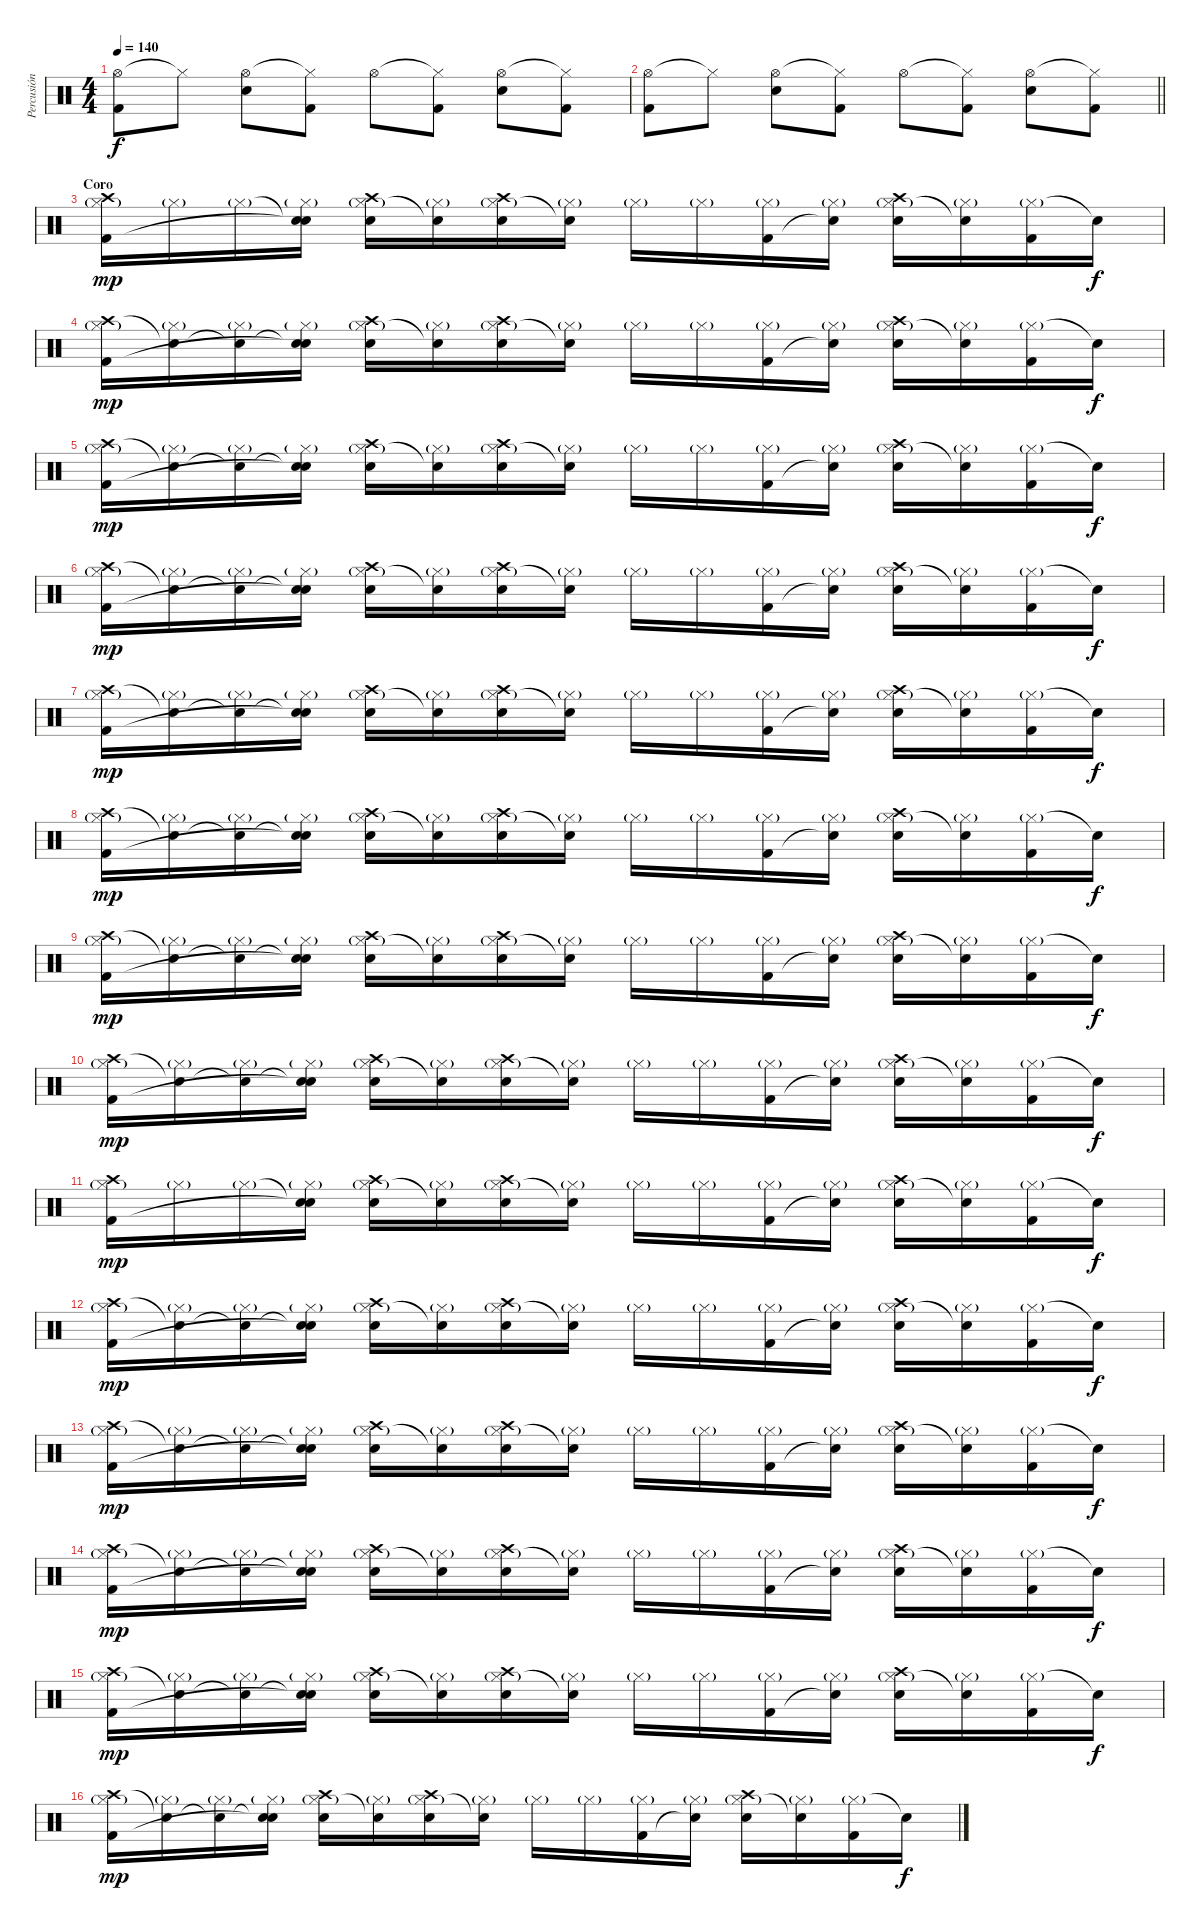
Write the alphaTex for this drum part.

\track ("Percusión" "Percusión") {instrument percussion}
\staff {score}
\articulation defaults
\ts (4 4)
\tempo 140
\clef neutral
\ks c
("Hi-Hat (open)" "Kick (hit) 2").8{dy f} "Hi-Hat (closed)"{t}.8 ("Hi-Hat (open)" "Electric Snare (hit)").8 ("Hi-Hat (closed)"{t} "Kick (hit) 2").8 "Hi-Hat (open)".8 ("Hi-Hat (closed)"{t} "Kick (hit) 2").8 ("Hi-Hat (open)" "Electric Snare (hit)").8 ("Hi-Hat (closed)"{t} "Kick (hit) 2").8 |
\barLineRight lightlight
("Hi-Hat (open)" "Kick (hit) 2").8 "Hi-Hat (closed)"{t}.8 ("Hi-Hat (open)" "Electric Snare (hit)").8 ("Hi-Hat (closed)"{t} "Kick (hit) 2").8 "Hi-Hat (open)".8 ("Hi-Hat (closed)"{t} "Kick (hit) 2").8 ("Hi-Hat (open)" "Electric Snare (hit)").8 ("Hi-Hat (closed)"{t} "Kick (hit) 2").8 |
\section ("" "Coro")
("Crash high (hit)" "Hi-Hat (closed)"{g} "Kick (hit) 2").16{dy mp} "Hi-Hat (closed)"{g}.16 "Hi-Hat (closed)"{g}.16 ("Snare (hit)"{t} "Hi-Hat (closed)"{g} "Snare (hit)"{t}).16 ("Crash high (hit)" "Hi-Hat (closed)"{g} "Electric Snare (hit)").16 ("Hi-Hat (closed)"{g} "Snare (hit)"{t}).16 ("Crash high (hit)" "Hi-Hat (closed)"{g} "Electric Snare (hit)").16 ("Hi-Hat (closed)"{g} "Snare (hit)"{t}).16 "Hi-Hat (closed)"{g}.16 "Hi-Hat (closed)"{g}.16 ("Hi-Hat (closed)"{g} "Kick (hit) 2").16 ("Hi-Hat (closed)"{g} "Snare (hit)"{t}).16 ("Crash high (hit)" "Hi-Hat (closed)"{g} "Electric Snare (hit)").16 ("Hi-Hat (closed)"{g} "Snare (hit)"{t}).16 ("Hi-Hat (closed)"{g} "Kick (hit) 2").16 "Snare (hit)"{t}.16{dy f} |
("Crash high (hit)" "Hi-Hat (closed)"{g} "Kick (hit) 2").16{dy mp} ("Snare (hit)"{t} "Hi-Hat (closed)"{g}).16 ("Snare (hit)"{t} "Hi-Hat (closed)"{g}).16 ("Snare (hit)"{t} "Hi-Hat (closed)"{g} "Snare (hit)"{t}).16 ("Crash high (hit)" "Hi-Hat (closed)"{g} "Electric Snare (hit)").16 ("Hi-Hat (closed)"{g} "Snare (hit)"{t}).16 ("Crash high (hit)" "Hi-Hat (closed)"{g} "Electric Snare (hit)").16 ("Hi-Hat (closed)"{g} "Snare (hit)"{t}).16 "Hi-Hat (closed)"{g}.16 "Hi-Hat (closed)"{g}.16 ("Hi-Hat (closed)"{g} "Kick (hit) 2").16 ("Hi-Hat (closed)"{g} "Snare (hit)"{t}).16 ("Crash high (hit)" "Hi-Hat (closed)"{g} "Electric Snare (hit)").16 ("Hi-Hat (closed)"{g} "Snare (hit)"{t}).16 ("Hi-Hat (closed)"{g} "Kick (hit) 2").16 "Snare (hit)"{t}.16{dy f} |
("Crash high (hit)" "Hi-Hat (closed)"{g} "Kick (hit) 2").16{dy mp} ("Snare (hit)"{t} "Hi-Hat (closed)"{g}).16 ("Snare (hit)"{t} "Hi-Hat (closed)"{g}).16 ("Snare (hit)"{t} "Hi-Hat (closed)"{g} "Snare (hit)"{t}).16 ("Crash high (hit)" "Hi-Hat (closed)"{g} "Electric Snare (hit)").16 ("Hi-Hat (closed)"{g} "Snare (hit)"{t}).16 ("Crash high (hit)" "Hi-Hat (closed)"{g} "Electric Snare (hit)").16 ("Hi-Hat (closed)"{g} "Snare (hit)"{t}).16 "Hi-Hat (closed)"{g}.16 "Hi-Hat (closed)"{g}.16 ("Hi-Hat (closed)"{g} "Kick (hit) 2").16 ("Hi-Hat (closed)"{g} "Snare (hit)"{t}).16 ("Crash high (hit)" "Hi-Hat (closed)"{g} "Electric Snare (hit)").16 ("Hi-Hat (closed)"{g} "Snare (hit)"{t}).16 ("Hi-Hat (closed)"{g} "Kick (hit) 2").16 "Snare (hit)"{t}.16{dy f} |
("Crash high (hit)" "Hi-Hat (closed)"{g} "Kick (hit) 2").16{dy mp} ("Snare (hit)"{t} "Hi-Hat (closed)"{g}).16 ("Snare (hit)"{t} "Hi-Hat (closed)"{g}).16 ("Snare (hit)"{t} "Hi-Hat (closed)"{g} "Snare (hit)"{t}).16 ("Crash high (hit)" "Hi-Hat (closed)"{g} "Electric Snare (hit)").16 ("Hi-Hat (closed)"{g} "Snare (hit)"{t}).16 ("Crash high (hit)" "Hi-Hat (closed)"{g} "Electric Snare (hit)").16 ("Hi-Hat (closed)"{g} "Snare (hit)"{t}).16 "Hi-Hat (closed)"{g}.16 "Hi-Hat (closed)"{g}.16 ("Hi-Hat (closed)"{g} "Kick (hit) 2").16 ("Hi-Hat (closed)"{g} "Snare (hit)"{t}).16 ("Crash high (hit)" "Hi-Hat (closed)"{g} "Electric Snare (hit)").16 ("Hi-Hat (closed)"{g} "Snare (hit)"{t}).16 ("Hi-Hat (closed)"{g} "Kick (hit) 2").16 "Snare (hit)"{t}.16{dy f} |
("Crash high (hit)" "Hi-Hat (closed)"{g} "Kick (hit) 2").16{dy mp} ("Snare (hit)"{t} "Hi-Hat (closed)"{g}).16 ("Snare (hit)"{t} "Hi-Hat (closed)"{g}).16 ("Snare (hit)"{t} "Hi-Hat (closed)"{g} "Snare (hit)"{t}).16 ("Crash high (hit)" "Hi-Hat (closed)"{g} "Electric Snare (hit)").16 ("Hi-Hat (closed)"{g} "Snare (hit)"{t}).16 ("Crash high (hit)" "Hi-Hat (closed)"{g} "Electric Snare (hit)").16 ("Hi-Hat (closed)"{g} "Snare (hit)"{t}).16 "Hi-Hat (closed)"{g}.16 "Hi-Hat (closed)"{g}.16 ("Hi-Hat (closed)"{g} "Kick (hit) 2").16 ("Hi-Hat (closed)"{g} "Snare (hit)"{t}).16 ("Crash high (hit)" "Hi-Hat (closed)"{g} "Electric Snare (hit)").16 ("Hi-Hat (closed)"{g} "Snare (hit)"{t}).16 ("Hi-Hat (closed)"{g} "Kick (hit) 2").16 "Snare (hit)"{t}.16{dy f} |
("Crash high (hit)" "Hi-Hat (closed)"{g} "Kick (hit) 2").16{dy mp} ("Snare (hit)"{t} "Hi-Hat (closed)"{g}).16 ("Snare (hit)"{t} "Hi-Hat (closed)"{g}).16 ("Snare (hit)"{t} "Hi-Hat (closed)"{g} "Snare (hit)"{t}).16 ("Crash high (hit)" "Hi-Hat (closed)"{g} "Electric Snare (hit)").16 ("Hi-Hat (closed)"{g} "Snare (hit)"{t}).16 ("Crash high (hit)" "Hi-Hat (closed)"{g} "Electric Snare (hit)").16 ("Hi-Hat (closed)"{g} "Snare (hit)"{t}).16 "Hi-Hat (closed)"{g}.16 "Hi-Hat (closed)"{g}.16 ("Hi-Hat (closed)"{g} "Kick (hit) 2").16 ("Hi-Hat (closed)"{g} "Snare (hit)"{t}).16 ("Crash high (hit)" "Hi-Hat (closed)"{g} "Electric Snare (hit)").16 ("Hi-Hat (closed)"{g} "Snare (hit)"{t}).16 ("Hi-Hat (closed)"{g} "Kick (hit) 2").16 "Snare (hit)"{t}.16{dy f} |
("Crash high (hit)" "Hi-Hat (closed)"{g} "Kick (hit) 2").16{dy mp} ("Snare (hit)"{t} "Hi-Hat (closed)"{g}).16 ("Snare (hit)"{t} "Hi-Hat (closed)"{g}).16 ("Snare (hit)"{t} "Hi-Hat (closed)"{g} "Snare (hit)"{t}).16 ("Crash high (hit)" "Hi-Hat (closed)"{g} "Electric Snare (hit)").16 ("Hi-Hat (closed)"{g} "Snare (hit)"{t}).16 ("Crash high (hit)" "Hi-Hat (closed)"{g} "Electric Snare (hit)").16 ("Hi-Hat (closed)"{g} "Snare (hit)"{t}).16 "Hi-Hat (closed)"{g}.16 "Hi-Hat (closed)"{g}.16 ("Hi-Hat (closed)"{g} "Kick (hit) 2").16 ("Hi-Hat (closed)"{g} "Snare (hit)"{t}).16 ("Crash high (hit)" "Hi-Hat (closed)"{g} "Electric Snare (hit)").16 ("Hi-Hat (closed)"{g} "Snare (hit)"{t}).16 ("Hi-Hat (closed)"{g} "Kick (hit) 2").16 "Snare (hit)"{t}.16{dy f} |
("Crash high (hit)" "Hi-Hat (closed)"{g} "Kick (hit) 2").16{dy mp} ("Snare (hit)"{t} "Hi-Hat (closed)"{g}).16 ("Snare (hit)"{t} "Hi-Hat (closed)"{g}).16 ("Snare (hit)"{t} "Hi-Hat (closed)"{g} "Snare (hit)"{t}).16 ("Crash high (hit)" "Hi-Hat (closed)"{g} "Electric Snare (hit)").16 ("Hi-Hat (closed)"{g} "Snare (hit)"{t}).16 ("Crash high (hit)" "Hi-Hat (closed)"{g} "Electric Snare (hit)").16 ("Hi-Hat (closed)"{g} "Snare (hit)"{t}).16 "Hi-Hat (closed)"{g}.16 "Hi-Hat (closed)"{g}.16 ("Hi-Hat (closed)"{g} "Kick (hit) 2").16 ("Hi-Hat (closed)"{g} "Snare (hit)"{t}).16 ("Crash high (hit)" "Hi-Hat (closed)"{g} "Electric Snare (hit)").16 ("Hi-Hat (closed)"{g} "Snare (hit)"{t}).16 ("Hi-Hat (closed)"{g} "Kick (hit) 2").16 "Snare (hit)"{t}.16{dy f} |
("Crash high (hit)" "Hi-Hat (closed)"{g} "Kick (hit) 2").16{dy mp} "Hi-Hat (closed)"{g}.16 "Hi-Hat (closed)"{g}.16 ("Snare (hit)"{t} "Hi-Hat (closed)"{g} "Snare (hit)"{t}).16 ("Crash high (hit)" "Hi-Hat (closed)"{g} "Electric Snare (hit)").16 ("Hi-Hat (closed)"{g} "Snare (hit)"{t}).16 ("Crash high (hit)" "Hi-Hat (closed)"{g} "Electric Snare (hit)").16 ("Hi-Hat (closed)"{g} "Snare (hit)"{t}).16 "Hi-Hat (closed)"{g}.16 "Hi-Hat (closed)"{g}.16 ("Hi-Hat (closed)"{g} "Kick (hit) 2").16 ("Hi-Hat (closed)"{g} "Snare (hit)"{t}).16 ("Crash high (hit)" "Hi-Hat (closed)"{g} "Electric Snare (hit)").16 ("Hi-Hat (closed)"{g} "Snare (hit)"{t}).16 ("Hi-Hat (closed)"{g} "Kick (hit) 2").16 "Snare (hit)"{t}.16{dy f} |
("Crash high (hit)" "Hi-Hat (closed)"{g} "Kick (hit) 2").16{dy mp} ("Snare (hit)"{t} "Hi-Hat (closed)"{g}).16 ("Snare (hit)"{t} "Hi-Hat (closed)"{g}).16 ("Snare (hit)"{t} "Hi-Hat (closed)"{g} "Snare (hit)"{t}).16 ("Crash high (hit)" "Hi-Hat (closed)"{g} "Electric Snare (hit)").16 ("Hi-Hat (closed)"{g} "Snare (hit)"{t}).16 ("Crash high (hit)" "Hi-Hat (closed)"{g} "Electric Snare (hit)").16 ("Hi-Hat (closed)"{g} "Snare (hit)"{t}).16 "Hi-Hat (closed)"{g}.16 "Hi-Hat (closed)"{g}.16 ("Hi-Hat (closed)"{g} "Kick (hit) 2").16 ("Hi-Hat (closed)"{g} "Snare (hit)"{t}).16 ("Crash high (hit)" "Hi-Hat (closed)"{g} "Electric Snare (hit)").16 ("Hi-Hat (closed)"{g} "Snare (hit)"{t}).16 ("Hi-Hat (closed)"{g} "Kick (hit) 2").16 "Snare (hit)"{t}.16{dy f} |
("Crash high (hit)" "Hi-Hat (closed)"{g} "Kick (hit) 2").16{dy mp} ("Snare (hit)"{t} "Hi-Hat (closed)"{g}).16 ("Snare (hit)"{t} "Hi-Hat (closed)"{g}).16 ("Snare (hit)"{t} "Hi-Hat (closed)"{g} "Snare (hit)"{t}).16 ("Crash high (hit)" "Hi-Hat (closed)"{g} "Electric Snare (hit)").16 ("Hi-Hat (closed)"{g} "Snare (hit)"{t}).16 ("Crash high (hit)" "Hi-Hat (closed)"{g} "Electric Snare (hit)").16 ("Hi-Hat (closed)"{g} "Snare (hit)"{t}).16 "Hi-Hat (closed)"{g}.16 "Hi-Hat (closed)"{g}.16 ("Hi-Hat (closed)"{g} "Kick (hit) 2").16 ("Hi-Hat (closed)"{g} "Snare (hit)"{t}).16 ("Crash high (hit)" "Hi-Hat (closed)"{g} "Electric Snare (hit)").16 ("Hi-Hat (closed)"{g} "Snare (hit)"{t}).16 ("Hi-Hat (closed)"{g} "Kick (hit) 2").16 "Snare (hit)"{t}.16{dy f} |
("Crash high (hit)" "Hi-Hat (closed)"{g} "Kick (hit) 2").16{dy mp} ("Snare (hit)"{t} "Hi-Hat (closed)"{g}).16 ("Snare (hit)"{t} "Hi-Hat (closed)"{g}).16 ("Snare (hit)"{t} "Hi-Hat (closed)"{g} "Snare (hit)"{t}).16 ("Crash high (hit)" "Hi-Hat (closed)"{g} "Electric Snare (hit)").16 ("Hi-Hat (closed)"{g} "Snare (hit)"{t}).16 ("Crash high (hit)" "Hi-Hat (closed)"{g} "Electric Snare (hit)").16 ("Hi-Hat (closed)"{g} "Snare (hit)"{t}).16 "Hi-Hat (closed)"{g}.16 "Hi-Hat (closed)"{g}.16 ("Hi-Hat (closed)"{g} "Kick (hit) 2").16 ("Hi-Hat (closed)"{g} "Snare (hit)"{t}).16 ("Crash high (hit)" "Hi-Hat (closed)"{g} "Electric Snare (hit)").16 ("Hi-Hat (closed)"{g} "Snare (hit)"{t}).16 ("Hi-Hat (closed)"{g} "Kick (hit) 2").16 "Snare (hit)"{t}.16{dy f} |
("Crash high (hit)" "Hi-Hat (closed)"{g} "Kick (hit) 2").16{dy mp} ("Snare (hit)"{t} "Hi-Hat (closed)"{g}).16 ("Snare (hit)"{t} "Hi-Hat (closed)"{g}).16 ("Snare (hit)"{t} "Hi-Hat (closed)"{g} "Snare (hit)"{t}).16 ("Crash high (hit)" "Hi-Hat (closed)"{g} "Electric Snare (hit)").16 ("Hi-Hat (closed)"{g} "Snare (hit)"{t}).16 ("Crash high (hit)" "Hi-Hat (closed)"{g} "Electric Snare (hit)").16 ("Hi-Hat (closed)"{g} "Snare (hit)"{t}).16 "Hi-Hat (closed)"{g}.16 "Hi-Hat (closed)"{g}.16 ("Hi-Hat (closed)"{g} "Kick (hit) 2").16 ("Hi-Hat (closed)"{g} "Snare (hit)"{t}).16 ("Crash high (hit)" "Hi-Hat (closed)"{g} "Electric Snare (hit)").16 ("Hi-Hat (closed)"{g} "Snare (hit)"{t}).16 ("Hi-Hat (closed)"{g} "Kick (hit) 2").16 "Snare (hit)"{t}.16{dy f} |
("Crash high (hit)" "Hi-Hat (closed)"{g} "Kick (hit) 2").16{dy mp} ("Snare (hit)"{t} "Hi-Hat (closed)"{g}).16 ("Snare (hit)"{t} "Hi-Hat (closed)"{g}).16 ("Snare (hit)"{t} "Hi-Hat (closed)"{g} "Snare (hit)"{t}).16 ("Crash high (hit)" "Hi-Hat (closed)"{g} "Electric Snare (hit)").16 ("Hi-Hat (closed)"{g} "Snare (hit)"{t}).16 ("Crash high (hit)" "Hi-Hat (closed)"{g} "Electric Snare (hit)").16 ("Hi-Hat (closed)"{g} "Snare (hit)"{t}).16 "Hi-Hat (closed)"{g}.16 "Hi-Hat (closed)"{g}.16 ("Hi-Hat (closed)"{g} "Kick (hit) 2").16 ("Hi-Hat (closed)"{g} "Snare (hit)"{t}).16 ("Crash high (hit)" "Hi-Hat (closed)"{g} "Electric Snare (hit)").16 ("Hi-Hat (closed)"{g} "Snare (hit)"{t}).16 ("Hi-Hat (closed)"{g} "Kick (hit) 2").16 "Snare (hit)"{t}.16{dy f}
